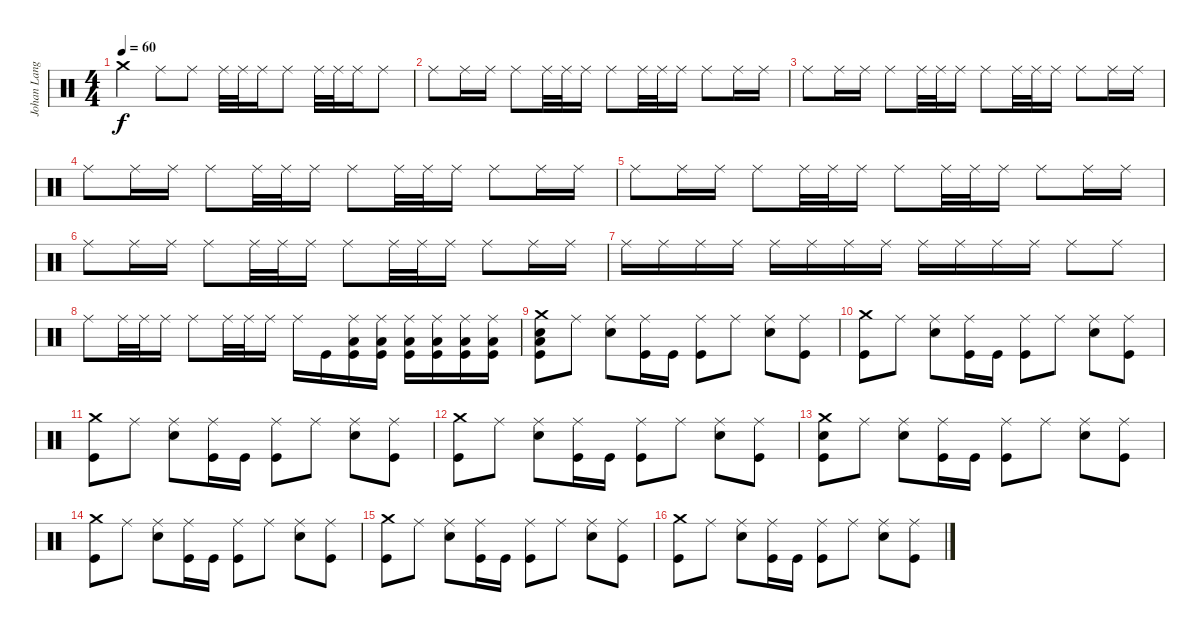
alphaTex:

\track ("Johan Langell" "Johan Lang") {instrument percussion}
\staff {score}
\articulation defaults
\ts (4 4)
\tempo 60
\clef neutral
\ks c "Crash medium (hit)".4{dy f} "Ride (middle)".8 "Ride (middle)".8 "Ride (middle)".32 "Ride (middle)".32 "Ride (middle)".16 "Ride (middle)".8 "Ride (middle)".32 "Ride (middle)".32 "Ride (middle)".16 "Ride (middle)".8
|
"Ride (middle)".8 "Ride (middle)".16 "Ride (middle)".16 "Ride (middle)".8 "Ride (middle)".32 "Ride (middle)".32 "Ride (middle)".16 "Ride (middle)".8 "Ride (middle)".32 "Ride (middle)".32 "Ride (middle)".16 "Ride (middle)".8 "Ride (middle)".16 "Ride (middle)".16 |
"Ride (middle)".8 "Ride (middle)".16 "Ride (middle)".16 "Ride (middle)".8 "Ride (middle)".32 "Ride (middle)".32 "Ride (middle)".16 "Ride (middle)".8 "Ride (middle)".32 "Ride (middle)".32 "Ride (middle)".16 "Ride (middle)".8 "Ride (middle)".16 "Ride (middle)".16 |
"Ride (middle)".8 "Ride (middle)".16 "Ride (middle)".16 "Ride (middle)".8 "Ride (middle)".32 "Ride (middle)".32 "Ride (middle)".16 "Ride (middle)".8 "Ride (middle)".32 "Ride (middle)".32 "Ride (middle)".16 "Ride (middle)".8 "Ride (middle)".16 "Ride (middle)".16 |
"Ride (middle)".8 "Ride (middle)".16 "Ride (middle)".16 "Ride (middle)".8 "Ride (middle)".32 "Ride (middle)".32 "Ride (middle)".16 "Ride (middle)".8 "Ride (middle)".32 "Ride (middle)".32 "Ride (middle)".16 "Ride (middle)".8 "Ride (middle)".16 "Ride (middle)".16 |
"Ride (middle)".8 "Ride (middle)".16 "Ride (middle)".16 "Ride (middle)".8 "Ride (middle)".32 "Ride (middle)".32 "Ride (middle)".16 "Ride (middle)".8 "Ride (middle)".32 "Ride (middle)".32 "Ride (middle)".16 "Ride (middle)".8 "Ride (middle)".16 "Ride (middle)".16 |
"Ride (middle)".16 "Ride (middle)".16 "Ride (middle)".16 "Ride (middle)".16 "Ride (middle)".16 "Ride (middle)".16 "Ride (middle)".16 "Ride (middle)".16 "Ride (middle)".16 "Ride (middle)".16 "Ride (middle)".16 "Ride (middle)".16 "Ride (middle)".8 "Ride (middle)".8 |
"Ride (middle)".8 "Ride (middle)".32 "Ride (middle)".32 "Ride (middle)".16 "Ride (middle)".8 "Ride (middle)".32 "Ride (middle)".32 "Ride (middle)".16 "Ride (middle)".16 "Kick (hit)".16 ("Ride (middle)" "Low Tom (hit)" "Kick (hit)").16 ("Ride (middle)" "Low Tom (hit)" "Kick (hit)").16 ("Ride (middle)" "Low Tom (hit)" "Kick (hit)").16 ("Ride (middle)" "Low Tom (hit)" "Kick (hit)").16 ("Ride (middle)" "Low Tom (hit)" "Kick (hit)").16 ("Ride (middle)" "Low Tom (hit)" "Kick (hit)").16 |
("Crash medium (hit)" "Low Tom (hit)" "Snare (hit) 2" "Kick (hit)").8 "Ride (middle)".8 ("Ride (middle)" "Snare (hit) 2").8 ("Ride (middle)" "Kick (hit)").16 "Kick (hit)".16 ("Ride (middle)" "Kick (hit)").8 "Ride (middle)".8 ("Ride (middle)" "Snare (hit) 2").8 ("Ride (middle)" "Kick (hit)").8 |
("Crash medium (hit)" "Kick (hit)").8 "Ride (middle)".8 ("Ride (middle)" "Snare (hit) 2").8 ("Ride (middle)" "Kick (hit)").16 "Kick (hit)".16 ("Ride (middle)" "Kick (hit)").8 "Ride (middle)".8 ("Ride (middle)" "Snare (hit) 2").8 ("Ride (middle)" "Kick (hit)").8 |
("Crash medium (hit)" "Kick (hit)").8 "Ride (middle)".8 ("Ride (middle)" "Snare (hit) 2").8 ("Ride (middle)" "Kick (hit)").16 "Kick (hit)".16 ("Ride (middle)" "Kick (hit)").8 "Ride (middle)".8 ("Ride (middle)" "Snare (hit) 2").8 ("Ride (middle)" "Kick (hit)").8 |
("Crash medium (hit)" "Kick (hit)").8 "Ride (middle)".8 ("Ride (middle)" "Snare (hit) 2").8 ("Ride (middle)" "Kick (hit)").16 "Kick (hit)".16 ("Ride (middle)" "Kick (hit)").8 "Ride (middle)".8 ("Ride (middle)" "Snare (hit) 2").8 ("Ride (middle)" "Kick (hit)").8 |
("Crash medium (hit)" "Snare (hit) 2" "Kick (hit)").8 "Ride (middle)".8 ("Ride (middle)" "Snare (hit) 2").8 ("Ride (middle)" "Kick (hit)").16 "Kick (hit)".16 ("Ride (middle)" "Kick (hit)").8 "Ride (middle)".8 ("Ride (middle)" "Snare (hit) 2").8 ("Ride (middle)" "Kick (hit)").8 |
("Crash medium (hit)" "Kick (hit)").8 "Ride (middle)".8 ("Ride (middle)" "Snare (hit) 2").8 ("Ride (middle)" "Kick (hit)").16 "Kick (hit)".16 ("Ride (middle)" "Kick (hit)").8 "Ride (middle)".8 ("Ride (middle)" "Snare (hit) 2").8 ("Ride (middle)" "Kick (hit)").8 |
("Crash medium (hit)" "Kick (hit)").8 "Ride (middle)".8 ("Ride (middle)" "Snare (hit) 2").8 ("Ride (middle)" "Kick (hit)").16 "Kick (hit)".16 ("Ride (middle)" "Kick (hit)").8 "Ride (middle)".8 ("Ride (middle)" "Snare (hit) 2").8 ("Ride (middle)" "Kick (hit)").8 |
("Crash medium (hit)" "Kick (hit)").8 "Ride (middle)".8 ("Ride (middle)" "Snare (hit) 2").8 ("Ride (middle)" "Kick (hit)").16 "Kick (hit)".16 ("Ride (middle)" "Kick (hit)").8 "Ride (middle)".8 ("Ride (middle)" "Snare (hit) 2").8 ("Ride (middle)" "Kick (hit)").8
